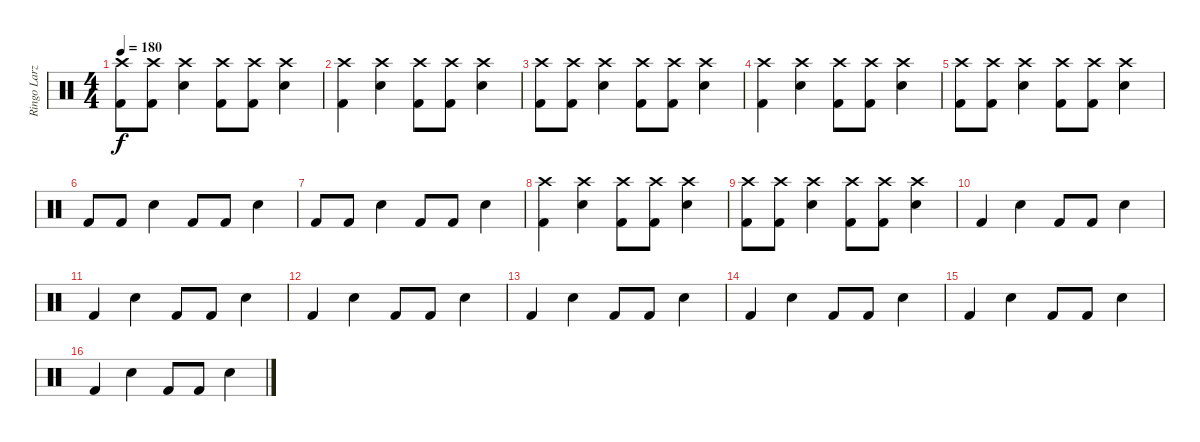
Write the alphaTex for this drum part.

\track ("Ringo Larz" "Ringo Larz") {instrument percussion}
\staff {score}
\articulation defaults
\ts (4 4)
\tempo 180
\clef neutral
\ks c
("Crash high (hit)" "Kick (hit) 2").8{dy f} ("Crash high (hit)" "Kick (hit) 2").8 ("Crash high (hit)" "Snare (hit) 2").4 ("Crash high (hit)" "Kick (hit) 2").8 ("Crash high (hit)" "Kick (hit) 2").8 ("Crash high (hit)" "Snare (hit) 2").4 |
("Crash high (hit)" "Kick (hit) 2").4 ("Crash high (hit)" "Snare (hit) 2").4 ("Crash high (hit)" "Kick (hit) 2").8 ("Crash high (hit)" "Kick (hit) 2").8 ("Crash high (hit)" "Snare (hit) 2").4 |
("Crash high (hit)" "Kick (hit) 2").8 ("Crash high (hit)" "Kick (hit) 2").8 ("Crash high (hit)" "Snare (hit) 2").4 ("Crash high (hit)" "Kick (hit) 2").8 ("Crash high (hit)" "Kick (hit) 2").8 ("Crash high (hit)" "Snare (hit) 2").4 |
("Crash high (hit)" "Kick (hit) 2").4 ("Crash high (hit)" "Snare (hit) 2").4 ("Crash high (hit)" "Kick (hit) 2").8 ("Crash high (hit)" "Kick (hit) 2").8 ("Crash high (hit)" "Snare (hit) 2").4 |
("Crash high (hit)" "Kick (hit) 2").8 ("Crash high (hit)" "Kick (hit) 2").8 ("Crash high (hit)" "Snare (hit) 2").4 ("Crash high (hit)" "Kick (hit) 2").8 ("Crash high (hit)" "Kick (hit) 2").8 ("Crash high (hit)" "Snare (hit) 2").4 |
"Kick (hit) 2".8 "Kick (hit) 2".8 "Snare (hit) 2".4 "Kick (hit) 2".8 "Kick (hit) 2".8 "Snare (hit) 2".4 |
"Kick (hit) 2".8 "Kick (hit) 2".8 "Snare (hit) 2".4 "Kick (hit) 2".8 "Kick (hit) 2".8 "Snare (hit) 2".4 |
("Crash high (hit)" "Kick (hit) 2").4 ("Crash high (hit)" "Snare (hit) 2").4 ("Crash high (hit)" "Kick (hit) 2").8 ("Crash high (hit)" "Kick (hit) 2").8 ("Crash high (hit)" "Snare (hit) 2").4 |
("Crash high (hit)" "Kick (hit) 2").8 ("Crash high (hit)" "Kick (hit) 2").8 ("Crash high (hit)" "Snare (hit) 2").4 ("Crash high (hit)" "Kick (hit) 2").8 ("Crash high (hit)" "Kick (hit) 2").8 ("Crash high (hit)" "Snare (hit) 2").4 |
"Kick (hit) 2".4 "Snare (hit) 2".4 "Kick (hit) 2".8 "Kick (hit) 2".8 "Snare (hit) 2".4 |
"Kick (hit) 2".4 "Snare (hit) 2".4 "Kick (hit) 2".8 "Kick (hit) 2".8 "Snare (hit) 2".4 |
"Kick (hit) 2".4 "Snare (hit) 2".4 "Kick (hit) 2".8 "Kick (hit) 2".8 "Snare (hit) 2".4 |
"Kick (hit) 2".4 "Snare (hit) 2".4 "Kick (hit) 2".8 "Kick (hit) 2".8 "Snare (hit) 2".4 |
"Kick (hit) 2".4 "Snare (hit) 2".4 "Kick (hit) 2".8 "Kick (hit) 2".8 "Snare (hit) 2".4 |
"Kick (hit) 2".4 "Snare (hit) 2".4 "Kick (hit) 2".8 "Kick (hit) 2".8 "Snare (hit) 2".4 |
"Kick (hit) 2".4 "Snare (hit) 2".4 "Kick (hit) 2".8 "Kick (hit) 2".8 "Snare (hit) 2".4
